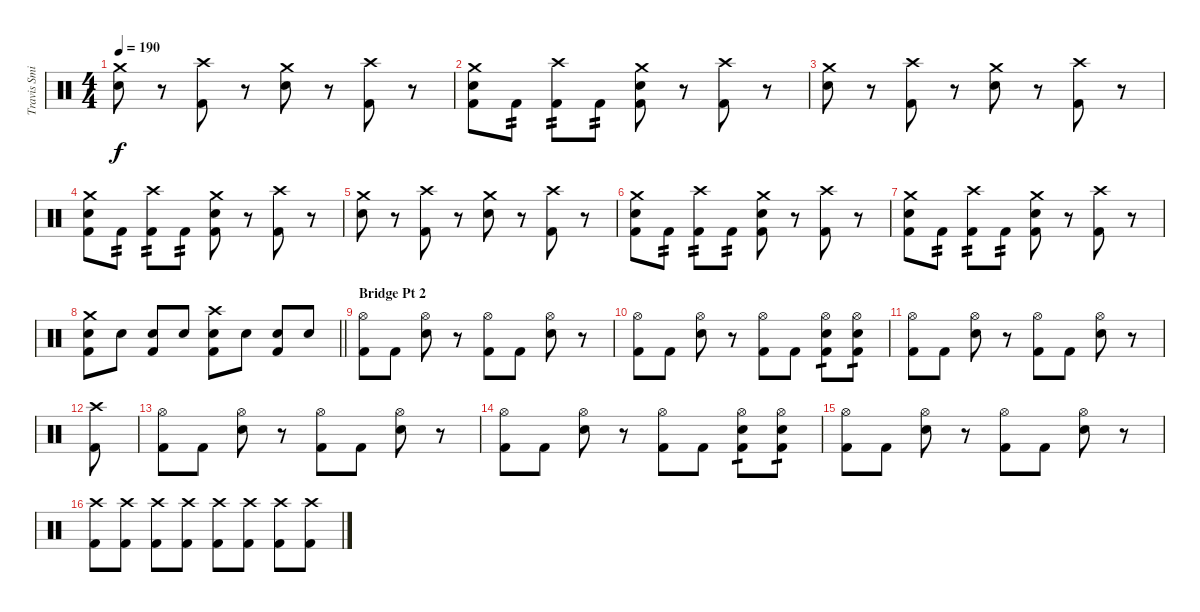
\track ("Travis Smith" "Travis Smi") {instrument percussion}
\staff {score}
\articulation defaults
\ts (4 4)
\tempo 190
\clef neutral
\ks c
("Crash medium (hit)" "Electric Snare (hit)").8{dy f} r.8 ("Crash high (hit)" "Kick (hit) 2").8 r.8 ("Crash medium (hit)" "Electric Snare (hit)").8 r.8 ("Crash high (hit)" "Kick (hit) 2").8 r.8 |
("Crash medium (hit)" "Electric Snare (hit)" "Kick (hit) 2").8 "Kick (hit) 2".8{tp 2} ("Crash high (hit)" "Kick (hit) 2").8{tp 2} "Kick (hit) 2".8{tp 2} ("Crash medium (hit)" "Electric Snare (hit)" "Kick (hit) 2").8 r.8 ("Crash high (hit)" "Kick (hit) 2").8 r.8 |
("Crash medium (hit)" "Electric Snare (hit)").8 r.8 ("Crash high (hit)" "Kick (hit) 2").8 r.8 ("Crash medium (hit)" "Electric Snare (hit)").8 r.8 ("Crash high (hit)" "Kick (hit) 2").8 r.8 |
("Crash medium (hit)" "Electric Snare (hit)" "Kick (hit) 2").8 "Kick (hit) 2".8{tp 2} ("Crash high (hit)" "Kick (hit) 2").8{tp 2} "Kick (hit) 2".8{tp 2} ("Crash medium (hit)" "Electric Snare (hit)" "Kick (hit) 2").8 r.8 ("Crash high (hit)" "Kick (hit) 2").8 r.8 |
("Crash medium (hit)" "Electric Snare (hit)").8 r.8 ("Crash high (hit)" "Kick (hit) 2").8 r.8 ("Crash medium (hit)" "Electric Snare (hit)").8 r.8 ("Crash high (hit)" "Kick (hit) 2").8 r.8 |
("Crash medium (hit)" "Electric Snare (hit)" "Kick (hit) 2").8 "Kick (hit) 2".8{tp 2} ("Crash high (hit)" "Kick (hit) 2").8{tp 2} "Kick (hit) 2".8{tp 2} ("Crash medium (hit)" "Electric Snare (hit)" "Kick (hit) 2").8 r.8 ("Crash high (hit)" "Kick (hit) 2").8 r.8 |
("Crash medium (hit)" "Electric Snare (hit)" "Kick (hit) 2").8 "Kick (hit) 2".8{tp 2} ("Crash high (hit)" "Kick (hit) 2").8{tp 2} "Kick (hit) 2".8{tp 2} ("Crash medium (hit)" "Electric Snare (hit)" "Kick (hit) 2").8 r.8 ("Crash high (hit)" "Kick (hit) 2").8 r.8 |
\barLineRight lightlight
("Crash medium (hit)" "Electric Snare (hit)" "Kick (hit) 2").8 "Electric Snare (hit)".8 ("Electric Snare (hit)" "Kick (hit) 2").8 "Electric Snare (hit)".8 ("Crash high (hit)" "Snare (hit) 2" "Kick (hit) 2").8 "Snare (hit) 2".8 ("Snare (hit) 2" "Kick (hit) 2").8 "Snare (hit) 2".8 |
\section ("" "Bridge Pt 2")
("Hi-Hat (open)" "Kick (hit) 2").8 "Kick (hit) 2".8 ("Hi-Hat (open)" "Electric Snare (hit)").8 r.8 ("Hi-Hat (open)" "Kick (hit) 2").8 "Kick (hit) 2".8 ("Hi-Hat (open)" "Electric Snare (hit)").8 r.8 |
("Hi-Hat (open)" "Kick (hit) 2").8 "Kick (hit) 2".8 ("Hi-Hat (open)" "Electric Snare (hit)").8 r.8 ("Hi-Hat (open)" "Kick (hit) 2").8 "Kick (hit) 2".8 ("Hi-Hat (open)" "Electric Snare (hit)" "Kick (hit) 2").8{tp 1} ("Hi-Hat (open)" "Electric Snare (hit)" "Kick (hit) 2").8{tp 1} |
("Hi-Hat (open)" "Kick (hit) 2").8 "Kick (hit) 2".8 ("Hi-Hat (open)" "Electric Snare (hit)").8 r.8 ("Hi-Hat (open)" "Kick (hit) 2").8 "Kick (hit) 2".8 ("Hi-Hat (open)" "Electric Snare (hit)").8 r.8 |
("Crash high (hit)" "Kick (hit) 2").8 |
("Hi-Hat (open)" "Kick (hit) 2").8 "Kick (hit) 2".8 ("Hi-Hat (open)" "Electric Snare (hit)").8 r.8 ("Hi-Hat (open)" "Kick (hit) 2").8 "Kick (hit) 2".8 ("Hi-Hat (open)" "Electric Snare (hit)").8 r.8 |
("Hi-Hat (open)" "Kick (hit) 2").8 "Kick (hit) 2".8 ("Hi-Hat (open)" "Electric Snare (hit)").8 r.8 ("Hi-Hat (open)" "Kick (hit) 2").8 "Kick (hit) 2".8 ("Hi-Hat (open)" "Electric Snare (hit)" "Kick (hit) 2").8{tp 1} ("Hi-Hat (open)" "Electric Snare (hit)" "Kick (hit) 2").8{tp 1} |
("Hi-Hat (open)" "Kick (hit) 2").8 "Kick (hit) 2".8 ("Hi-Hat (open)" "Electric Snare (hit)").8 r.8 ("Hi-Hat (open)" "Kick (hit) 2").8 "Kick (hit) 2".8 ("Hi-Hat (open)" "Electric Snare (hit)").8 r.8 |
("Crash high (hit)" "Kick (hit) 2").8 ("Crash high (hit)" "Kick (hit) 2").8 ("Crash high (hit)" "Kick (hit) 2").8 ("Crash high (hit)" "Kick (hit) 2").8 ("Crash high (hit)" "Kick (hit) 2").8 ("Crash high (hit)" "Kick (hit) 2").8 ("Crash high (hit)" "Kick (hit) 2").8 ("Crash high (hit)" "Kick (hit) 2").8
